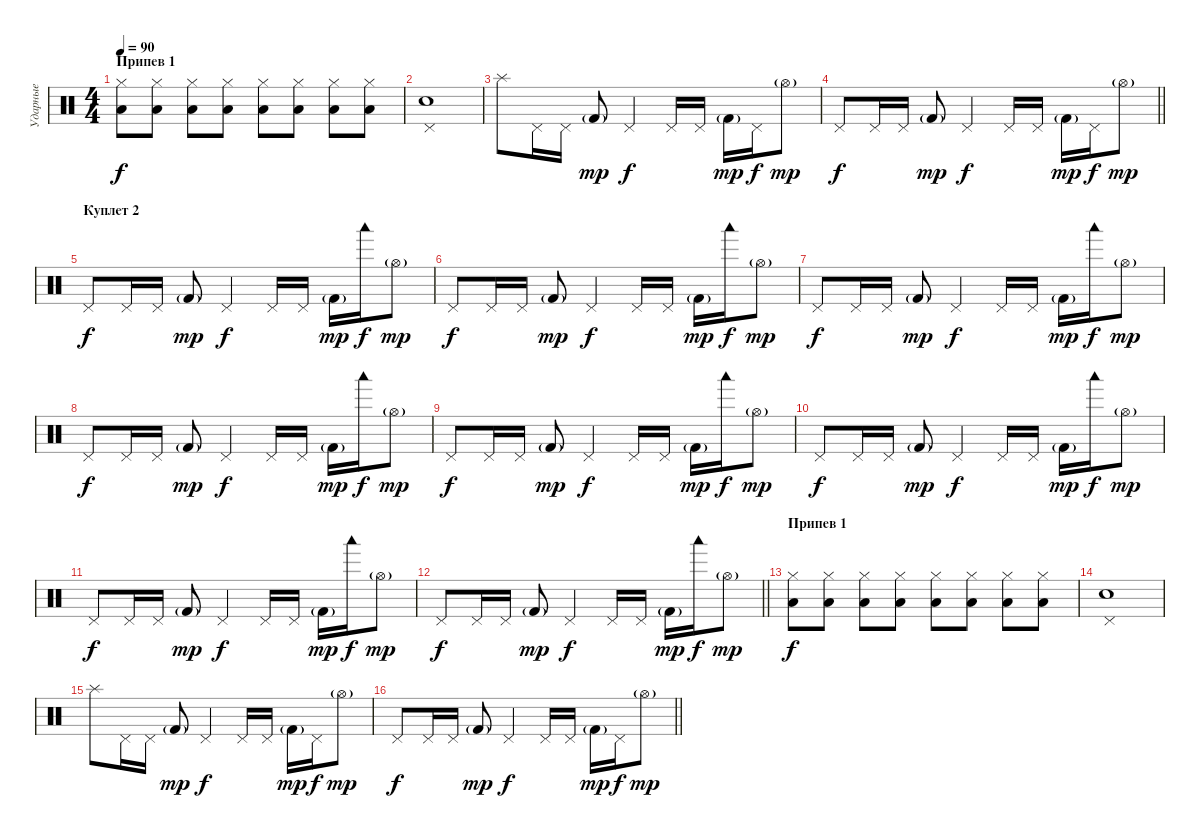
\track ("Ударные" "Ударные") {instrument percussion}
\staff {score}
\articulation defaults
\ts (4 4)
\section ("" "Припев 1")
\tempo 90
\clef neutral
\ks c
("Low Floor Tom (hit)" "Hi-Hat (closed)").8{dy f} ("Low Floor Tom (hit)" "Hi-Hat (closed)").8 ("Low Floor Tom (hit)" "Hi-Hat (closed)").8 ("Low Floor Tom (hit)" "Hi-Hat (closed)").8 ("Low Floor Tom (hit)" "Hi-Hat (closed)").8 ("Low Floor Tom (hit)" "Hi-Hat (closed)").8 ("Low Floor Tom (hit)" "Hi-Hat (closed)").8 ("Low Floor Tom (hit)" "Hi-Hat (closed)").8 |
("Electric Snare (hit)" "Pedal Hi-Hat (hit)").1 |
"Splash (hit)".8 "Pedal Hi-Hat (hit)".16 "Pedal Hi-Hat (hit)".16 "Kick (hit) 2"{g}.8{dy mp} "Pedal Hi-Hat (hit)".4{dy f} "Pedal Hi-Hat (hit)".16 "Pedal Hi-Hat (hit)".16 "Kick (hit) 2"{g}.16{dy mp} "Pedal Hi-Hat (hit)".16{dy f} "Hi-Hat (open)"{g}.8{dy mp} |
\barLineRight lightlight "Pedal Hi-Hat (hit)".8{dy f} "Pedal Hi-Hat (hit)".16 "Pedal Hi-Hat (hit)".16 "Kick (hit) 2"{g}.8{dy mp} "Pedal Hi-Hat (hit)".4{dy f} "Pedal Hi-Hat (hit)".16 "Pedal Hi-Hat (hit)".16 "Kick (hit) 2"{g}.16{dy mp} "Pedal Hi-Hat (hit)".16{dy f} "Hi-Hat (open)"{g}.8{dy mp}
|
\section ("" "Куплет 2")
"Pedal Hi-Hat (hit)".8{dy f} "Pedal Hi-Hat (hit)".16 "Pedal Hi-Hat (hit)".16 "Kick (hit) 2"{g}.8{dy mp} "Pedal Hi-Hat (hit)".4{dy f} "Pedal Hi-Hat (hit)".16 "Pedal Hi-Hat (hit)".16 "Kick (hit) 2"{g}.16{dy mp} "Woodblock low (hit)".16{dy f} "Hi-Hat (open)"{g}.8{dy mp} |
"Pedal Hi-Hat (hit)".8{dy f} "Pedal Hi-Hat (hit)".16 "Pedal Hi-Hat (hit)".16 "Kick (hit) 2"{g}.8{dy mp} "Pedal Hi-Hat (hit)".4{dy f} "Pedal Hi-Hat (hit)".16 "Pedal Hi-Hat (hit)".16 "Kick (hit) 2"{g}.16{dy mp} "Woodblock low (hit)".16{dy f} "Hi-Hat (open)"{g}.8{dy mp} |
"Pedal Hi-Hat (hit)".8{dy f} "Pedal Hi-Hat (hit)".16 "Pedal Hi-Hat (hit)".16 "Kick (hit) 2"{g}.8{dy mp} "Pedal Hi-Hat (hit)".4{dy f} "Pedal Hi-Hat (hit)".16 "Pedal Hi-Hat (hit)".16 "Kick (hit) 2"{g}.16{dy mp} "Woodblock low (hit)".16{dy f} "Hi-Hat (open)"{g}.8{dy mp} |
"Pedal Hi-Hat (hit)".8{dy f} "Pedal Hi-Hat (hit)".16 "Pedal Hi-Hat (hit)".16 "Kick (hit) 2"{g}.8{dy mp} "Pedal Hi-Hat (hit)".4{dy f} "Pedal Hi-Hat (hit)".16 "Pedal Hi-Hat (hit)".16 "Kick (hit) 2"{g}.16{dy mp} "Woodblock low (hit)".16{dy f} "Hi-Hat (open)"{g}.8{dy mp} |
"Pedal Hi-Hat (hit)".8{dy f} "Pedal Hi-Hat (hit)".16 "Pedal Hi-Hat (hit)".16 "Kick (hit) 2"{g}.8{dy mp} "Pedal Hi-Hat (hit)".4{dy f} "Pedal Hi-Hat (hit)".16 "Pedal Hi-Hat (hit)".16 "Kick (hit) 2"{g}.16{dy mp} "Woodblock low (hit)".16{dy f} "Hi-Hat (open)"{g}.8{dy mp} |
"Pedal Hi-Hat (hit)".8{dy f} "Pedal Hi-Hat (hit)".16 "Pedal Hi-Hat (hit)".16 "Kick (hit) 2"{g}.8{dy mp} "Pedal Hi-Hat (hit)".4{dy f} "Pedal Hi-Hat (hit)".16 "Pedal Hi-Hat (hit)".16 "Kick (hit) 2"{g}.16{dy mp} "Woodblock low (hit)".16{dy f} "Hi-Hat (open)"{g}.8{dy mp} |
"Pedal Hi-Hat (hit)".8{dy f} "Pedal Hi-Hat (hit)".16 "Pedal Hi-Hat (hit)".16 "Kick (hit) 2"{g}.8{dy mp} "Pedal Hi-Hat (hit)".4{dy f} "Pedal Hi-Hat (hit)".16 "Pedal Hi-Hat (hit)".16 "Kick (hit) 2"{g}.16{dy mp} "Woodblock low (hit)".16{dy f} "Hi-Hat (open)"{g}.8{dy mp} |
\barLineRight lightlight "Pedal Hi-Hat (hit)".8{dy f} "Pedal Hi-Hat (hit)".16 "Pedal Hi-Hat (hit)".16 "Kick (hit) 2"{g}.8{dy mp} "Pedal Hi-Hat (hit)".4{dy f} "Pedal Hi-Hat (hit)".16 "Pedal Hi-Hat (hit)".16 "Kick (hit) 2"{g}.16{dy mp} "Woodblock low (hit)".16{dy f} "Hi-Hat (open)"{g}.8{dy mp}
|
\section ("" "Припев 1")
("Low Floor Tom (hit)" "Hi-Hat (closed)").8{dy f} ("Low Floor Tom (hit)" "Hi-Hat (closed)").8 ("Low Floor Tom (hit)" "Hi-Hat (closed)").8 ("Low Floor Tom (hit)" "Hi-Hat (closed)").8 ("Low Floor Tom (hit)" "Hi-Hat (closed)").8 ("Low Floor Tom (hit)" "Hi-Hat (closed)").8 ("Low Floor Tom (hit)" "Hi-Hat (closed)").8 ("Low Floor Tom (hit)" "Hi-Hat (closed)").8 |
("Electric Snare (hit)" "Pedal Hi-Hat (hit)").1 |
"Splash (hit)".8 "Pedal Hi-Hat (hit)".16 "Pedal Hi-Hat (hit)".16 "Kick (hit) 2"{g}.8{dy mp} "Pedal Hi-Hat (hit)".4{dy f} "Pedal Hi-Hat (hit)".16 "Pedal Hi-Hat (hit)".16 "Kick (hit) 2"{g}.16{dy mp} "Pedal Hi-Hat (hit)".16{dy f} "Hi-Hat (open)"{g}.8{dy mp} |
\barLineRight lightlight "Pedal Hi-Hat (hit)".8{dy f} "Pedal Hi-Hat (hit)".16 "Pedal Hi-Hat (hit)".16 "Kick (hit) 2"{g}.8{dy mp} "Pedal Hi-Hat (hit)".4{dy f} "Pedal Hi-Hat (hit)".16 "Pedal Hi-Hat (hit)".16 "Kick (hit) 2"{g}.16{dy mp} "Pedal Hi-Hat (hit)".16{dy f} "Hi-Hat (open)"{g}.8{dy mp}
